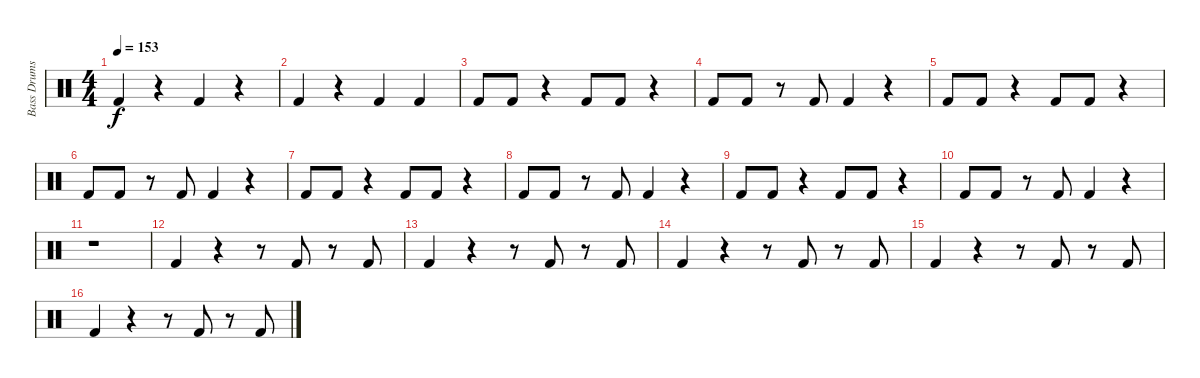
\track ("Bass Drums" "Bass Drums") {instrument percussion}
\staff {score}
\articulation defaults
\ts (4 4)
\tempo 153
\clef neutral
\ks c "Kick (hit) 2".4{dy f}
r.4 "Kick (hit) 2".4 r.4 |
"Kick (hit) 2".4 r.4 "Kick (hit) 2".4 "Kick (hit) 2".4 |
"Kick (hit) 2".8 "Kick (hit) 2".8 r.4 "Kick (hit) 2".8 "Kick (hit) 2".8 r.4 |
"Kick (hit) 2".8 "Kick (hit) 2".8 r.8 "Kick (hit) 2".8 "Kick (hit) 2".4 r.4 |
"Kick (hit) 2".8 "Kick (hit) 2".8 r.4 "Kick (hit) 2".8 "Kick (hit) 2".8 r.4 |
"Kick (hit) 2".8 "Kick (hit) 2".8 r.8 "Kick (hit) 2".8 "Kick (hit) 2".4 r.4 |
"Kick (hit) 2".8 "Kick (hit) 2".8 r.4 "Kick (hit) 2".8 "Kick (hit) 2".8 r.4 |
"Kick (hit) 2".8 "Kick (hit) 2".8 r.8 "Kick (hit) 2".8 "Kick (hit) 2".4 r.4 |
"Kick (hit) 2".8 "Kick (hit) 2".8 r.4 "Kick (hit) 2".8 "Kick (hit) 2".8 r.4 |
"Kick (hit) 2".8 "Kick (hit) 2".8 r.8 "Kick (hit) 2".8 "Kick (hit) 2".4 r.4 |
r.1 |
"Kick (hit) 2".4 r.4 r.8 "Kick (hit) 2".8 r.8 "Kick (hit) 2".8 |
"Kick (hit) 2".4 r.4 r.8 "Kick (hit) 2".8 r.8 "Kick (hit) 2".8 |
"Kick (hit) 2".4 r.4 r.8 "Kick (hit) 2".8 r.8 "Kick (hit) 2".8 |
"Kick (hit) 2".4 r.4 r.8 "Kick (hit) 2".8 r.8 "Kick (hit) 2".8 |
"Kick (hit) 2".4 r.4 r.8 "Kick (hit) 2".8 r.8 "Kick (hit) 2".8
